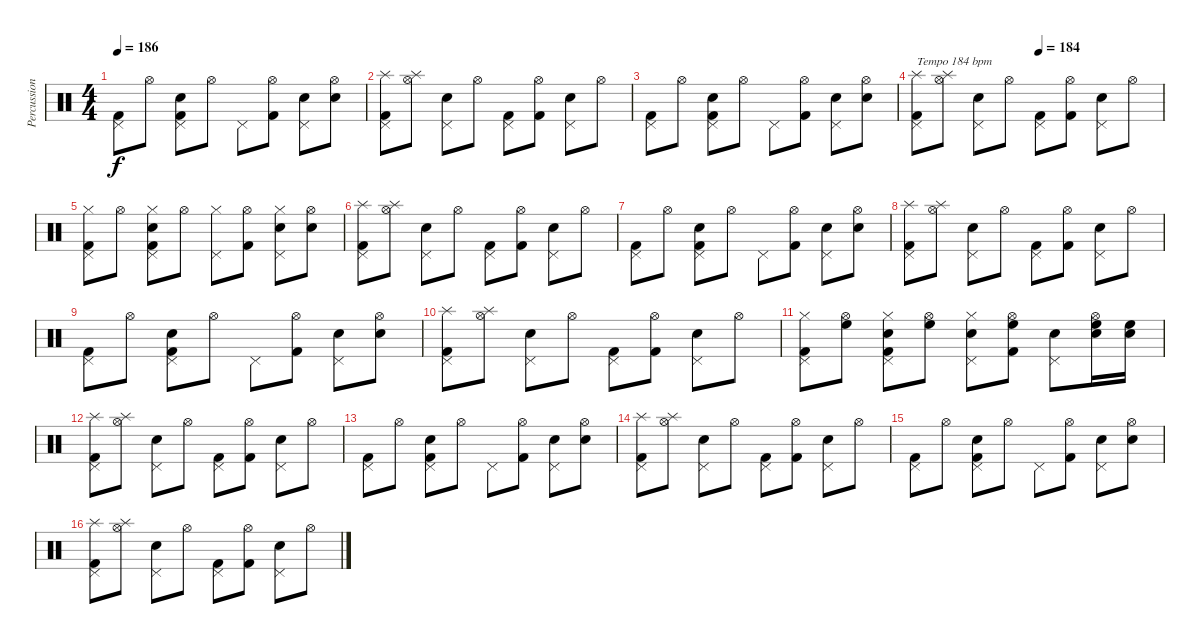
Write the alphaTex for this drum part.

\track ("Percussion" "Percussion") {instrument percussion}
\staff {score}
\articulation defaults
\ts (4 4)
\tempo 186
\clef neutral
\ks c
("Pedal Hi-Hat (hit)" "Kick (hit) 2").8{dy f} "Hi-Hat (open)".8 ("Pedal Hi-Hat (hit)" "Snare (hit) 2" "Kick (hit) 2").8 "Hi-Hat (open)".8 "Pedal Hi-Hat (hit)".8 ("Hi-Hat (open)" "Kick (hit) 2").8 ("Pedal Hi-Hat (hit)" "Snare (hit) 2").8 ("Hi-Hat (open)" "Snare (hit) 2").8 |
("Pedal Hi-Hat (hit)" "Splash (hit)" "Kick (hit) 2").8 ("Hi-Hat (open)" "Splash (hit)").8 ("Pedal Hi-Hat (hit)" "Snare (hit) 2").8 "Hi-Hat (open)".8 ("Pedal Hi-Hat (hit)" "Kick (hit) 2").8 ("Hi-Hat (open)" "Kick (hit) 2").8 ("Pedal Hi-Hat (hit)" "Snare (hit) 2").8 "Hi-Hat (open)".8 |
("Pedal Hi-Hat (hit)" "Kick (hit) 2").8 "Hi-Hat (open)".8 ("Pedal Hi-Hat (hit)" "Snare (hit) 2" "Kick (hit) 2").8 "Hi-Hat (open)".8 "Pedal Hi-Hat (hit)".8 ("Hi-Hat (open)" "Kick (hit) 2").8 ("Pedal Hi-Hat (hit)" "Snare (hit) 2").8 ("Hi-Hat (open)" "Snare (hit) 2").8 |
\tempo (184 0.5)
("Pedal Hi-Hat (hit)" "Splash (hit)" "Kick (hit) 2").8{txt "Tempo 184 bpm"} ("Hi-Hat (open)" "Splash (hit)").8 ("Pedal Hi-Hat (hit)" "Snare (hit) 2").8 "Hi-Hat (open)".8 ("Pedal Hi-Hat (hit)" "Kick (hit) 2").8 ("Hi-Hat (open)" "Kick (hit) 2").8 ("Pedal Hi-Hat (hit)" "Snare (hit) 2").8 "Hi-Hat (open)".8 |
("Pedal Hi-Hat (hit)" "Hi-Hat (closed)" "Kick (hit) 2").8 "Hi-Hat (open)".8 ("Pedal Hi-Hat (hit)" "Hi-Hat (closed)" "Snare (hit) 2" "Kick (hit) 2").8 "Hi-Hat (open)".8 ("Pedal Hi-Hat (hit)" "Hi-Hat (closed)").8 ("Hi-Hat (open)" "Kick (hit) 2").8 ("Pedal Hi-Hat (hit)" "Hi-Hat (closed)" "Snare (hit) 2").8 ("Hi-Hat (open)" "Snare (hit) 2").8 |
("Pedal Hi-Hat (hit)" "Splash (hit)" "Kick (hit) 2").8 ("Hi-Hat (open)" "Splash (hit)").8 ("Pedal Hi-Hat (hit)" "Snare (hit) 2").8 "Hi-Hat (open)".8 ("Pedal Hi-Hat (hit)" "Kick (hit) 2").8 ("Hi-Hat (open)" "Kick (hit) 2").8 ("Pedal Hi-Hat (hit)" "Snare (hit) 2").8 "Hi-Hat (open)".8 |
("Pedal Hi-Hat (hit)" "Kick (hit) 2").8 "Hi-Hat (open)".8 ("Pedal Hi-Hat (hit)" "Snare (hit) 2" "Kick (hit) 2").8 "Hi-Hat (open)".8 "Pedal Hi-Hat (hit)".8 ("Hi-Hat (open)" "Kick (hit) 2").8 ("Pedal Hi-Hat (hit)" "Snare (hit) 2").8 ("Hi-Hat (open)" "Snare (hit) 2").8 |
("Pedal Hi-Hat (hit)" "Splash (hit)" "Kick (hit) 2").8 ("Hi-Hat (open)" "Splash (hit)").8 ("Pedal Hi-Hat (hit)" "Snare (hit) 2").8 "Hi-Hat (open)".8 ("Pedal Hi-Hat (hit)" "Kick (hit) 2").8 ("Hi-Hat (open)" "Kick (hit) 2").8 ("Pedal Hi-Hat (hit)" "Snare (hit) 2").8 "Hi-Hat (open)".8 |
("Pedal Hi-Hat (hit)" "Kick (hit) 2").8 "Hi-Hat (open)".8 ("Pedal Hi-Hat (hit)" "Snare (hit) 2" "Kick (hit) 2").8 "Hi-Hat (open)".8 "Pedal Hi-Hat (hit)".8 ("Hi-Hat (open)" "Kick (hit) 2").8 ("Pedal Hi-Hat (hit)" "Snare (hit) 2").8 ("Hi-Hat (open)" "Snare (hit) 2").8 |
("Pedal Hi-Hat (hit)" "Splash (hit)" "Kick (hit) 2").8 ("Hi-Hat (open)" "Splash (hit)").8 ("Pedal Hi-Hat (hit)" "Snare (hit) 2").8 "Hi-Hat (open)".8 ("Pedal Hi-Hat (hit)" "Kick (hit) 2").8 ("Hi-Hat (open)" "Kick (hit) 2").8 ("Pedal Hi-Hat (hit)" "Snare (hit) 2").8 "Hi-Hat (open)".8 |
("Pedal Hi-Hat (hit)" "Hi-Hat (closed)" "Kick (hit) 2").8 ("Hi-Hat (open)" "High Floor Tom (hit)").8 ("Pedal Hi-Hat (hit)" "Hi-Hat (closed)" "Snare (hit) 2" "Kick (hit) 2").8 ("Hi-Hat (open)" "High Floor Tom (hit)").8 ("Pedal Hi-Hat (hit)" "Hi-Hat (closed)" "Snare (hit) 2").8 ("Hi-Hat (open)" "High Floor Tom (hit)" "Kick (hit) 2").8 ("Pedal Hi-Hat (hit)" "Snare (hit) 2").8 ("Hi-Hat (open)" "High Floor Tom (hit)" "Snare (hit) 2").16 ("High Floor Tom (hit)" "Snare (hit) 2").16 |
("Pedal Hi-Hat (hit)" "Splash (hit)" "Kick (hit) 2").8 ("Hi-Hat (open)" "Splash (hit)").8 ("Pedal Hi-Hat (hit)" "Snare (hit) 2").8 "Hi-Hat (open)".8 ("Pedal Hi-Hat (hit)" "Kick (hit) 2").8 ("Hi-Hat (open)" "Kick (hit) 2").8 ("Pedal Hi-Hat (hit)" "Snare (hit) 2").8 "Hi-Hat (open)".8 |
("Pedal Hi-Hat (hit)" "Kick (hit) 2").8 "Hi-Hat (open)".8 ("Pedal Hi-Hat (hit)" "Snare (hit) 2" "Kick (hit) 2").8 "Hi-Hat (open)".8 "Pedal Hi-Hat (hit)".8 ("Hi-Hat (open)" "Kick (hit) 2").8 ("Pedal Hi-Hat (hit)" "Snare (hit) 2").8 ("Hi-Hat (open)" "Snare (hit) 2").8 |
("Pedal Hi-Hat (hit)" "Splash (hit)" "Kick (hit) 2").8 ("Hi-Hat (open)" "Splash (hit)").8 ("Pedal Hi-Hat (hit)" "Snare (hit) 2").8 "Hi-Hat (open)".8 ("Pedal Hi-Hat (hit)" "Kick (hit) 2").8 ("Hi-Hat (open)" "Kick (hit) 2").8 ("Pedal Hi-Hat (hit)" "Snare (hit) 2").8 "Hi-Hat (open)".8 |
("Pedal Hi-Hat (hit)" "Kick (hit) 2").8 "Hi-Hat (open)".8 ("Pedal Hi-Hat (hit)" "Snare (hit) 2" "Kick (hit) 2").8 "Hi-Hat (open)".8 "Pedal Hi-Hat (hit)".8 ("Hi-Hat (open)" "Kick (hit) 2").8 ("Pedal Hi-Hat (hit)" "Snare (hit) 2").8 ("Hi-Hat (open)" "Snare (hit) 2").8 |
("Pedal Hi-Hat (hit)" "Splash (hit)" "Kick (hit) 2").8 ("Hi-Hat (open)" "Splash (hit)").8 ("Pedal Hi-Hat (hit)" "Snare (hit) 2").8 "Hi-Hat (open)".8 ("Pedal Hi-Hat (hit)" "Kick (hit) 2").8 ("Hi-Hat (open)" "Kick (hit) 2").8 ("Pedal Hi-Hat (hit)" "Snare (hit) 2").8 "Hi-Hat (open)".8
